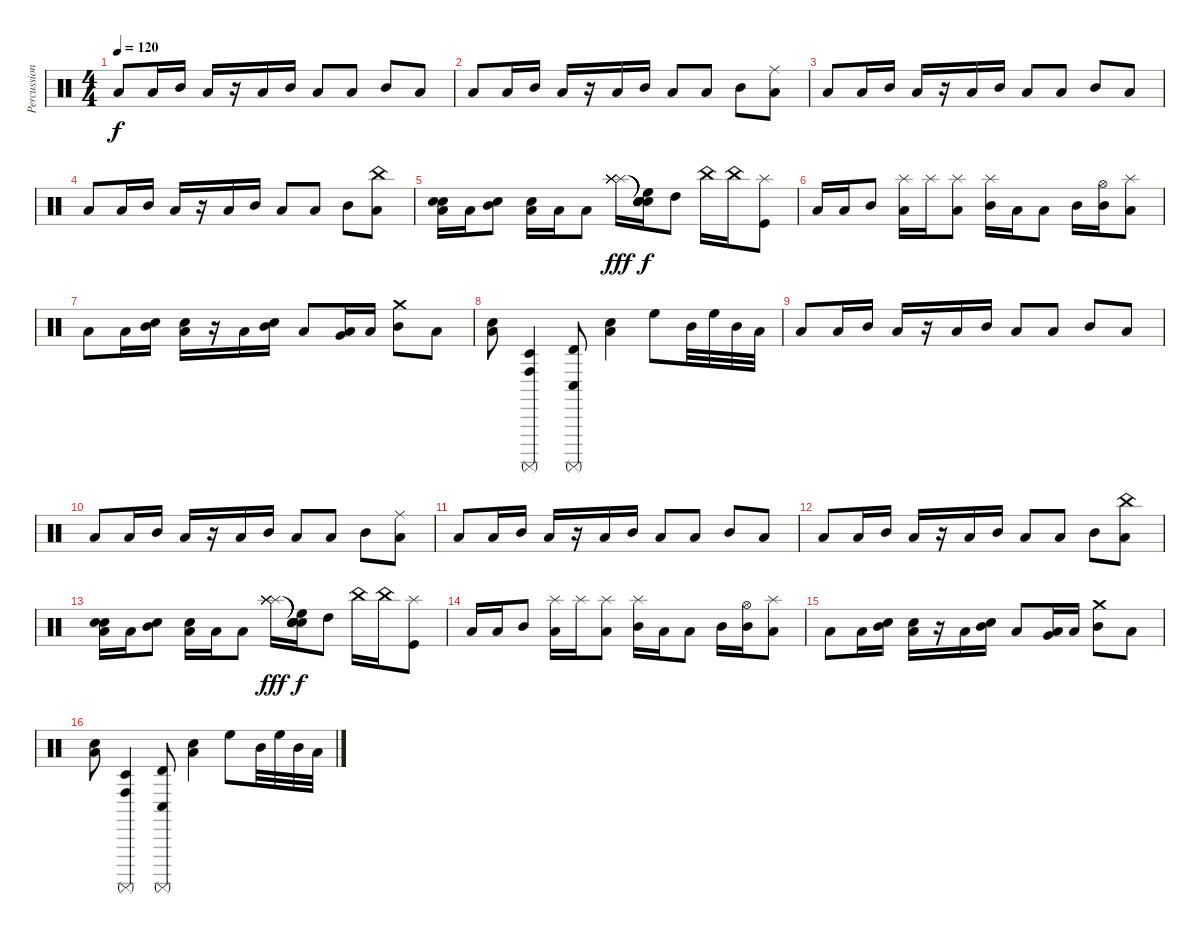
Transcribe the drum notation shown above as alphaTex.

\track ("Percussion" "Percussion") {instrument percussion}
\staff {score}
\articulation defaults
\ts (4 4)
\tempo 120
\clef neutral
\ks c "Low Floor Tom (hit)".8{dy f} "Low Tom (hit)".16 "Mid Tom (hit)".16 "Low Tom (hit)".16
r.16 "Low Tom (hit)".16 "Mid Tom (hit)".16 "Low Floor Tom (hit)".8 "Low Tom (hit)".8 "Mid Tom (hit)".8 "Low Tom (hit)".8 |
"Low Floor Tom (hit)".8 "Low Tom (hit)".16 "Mid Tom (hit)".16 "Low Tom (hit)".16 r.16 "Low Tom (hit)".16 "Mid Tom (hit)".16 "Low Floor Tom (hit)".8 "Low Tom (hit)".8 "Mid Tom (hit)".8 ("Low Tom (hit)" "Ride (middle)").8 |
"Low Floor Tom (hit)".8 "Low Tom (hit)".16 "Mid Tom (hit)".16 "Low Tom (hit)".16 r.16 "Low Tom (hit)".16 "Mid Tom (hit)".16 "Low Floor Tom (hit)".8 "Low Tom (hit)".8 "Mid Tom (hit)".8 "Low Tom (hit)".8 |
"Low Floor Tom (hit)".8 "Low Tom (hit)".16 "Mid Tom (hit)".16 "Low Tom (hit)".16 r.16 "Low Tom (hit)".16 "Mid Tom (hit)".16 "Low Floor Tom (hit)".8 "Low Tom (hit)".8 "Mid Tom (hit)".8 ("Low Tom (hit)" "China (hit)").8 |
("Low Floor Tom (hit)" "Snare (hit)" "Snare (hit)").16 "Low Tom (hit)".16 ("Mid Tom (hit)" "Snare (hit) 2").8 ("Low Tom (hit)" "Snare (hit) 2").16 "Low Tom (hit)".16 "Low Tom (hit)".8 ("Splash (hit)" "Splash (hit)" "Splash (hit)" "Splash (hit)" "Splash (hit)" "Splash (hit)").16{dy fff} ("Snare (hit)"{t} "High Floor Tom (hit)" "Snare (hit)"{t} "Snare (hit)"{t} "Snare (hit)"{t} "Snare (hit)"{t}).16{dy f} "High Tom (hit)".8 "China (hit)".16 "China (hit)".16 ("Splash (hit)" "Kick (hit)").8 |
"Low Floor Tom (hit)".16 "Low Tom (hit)".16 "Mid Tom (hit)".8 ("Low Tom (hit)" "Splash (hit)").16 "Splash (hit)".16 ("Low Tom (hit)" "Splash (hit)").8 ("Mid Tom (hit)" "Splash (hit)").16 "Low Floor Tom (hit)".16 "Low Tom (hit)".8 "Mid Tom (hit)".16 ("Mid Tom (hit)" "Hi-Hat (open)").16 ("Low Tom (hit)" "Splash (hit)").8 |
"Low Floor Tom (hit)".8 "Low Tom (hit)".16 ("Mid Tom (hit)" "Snare (hit) 2").16 ("Low Tom (hit)" "Snare (hit) 2").16 r.16 "Low Tom (hit)".16 ("Mid Tom (hit)" "Snare (hit) 2").16 "Low Floor Tom (hit)".8 ("Low Tom (hit)" "Very Low Tom (hit)").16 "Low Floor Tom (hit)".16 ("Mid Tom (hit)" "Crash medium (hit)").8 "Low Tom (hit)".8 |
("Low Floor Tom (hit)" "Hand Clap (hit)").8 ("Timbale low (hit)" "Surdo (mute)" "Conga high (hit)").4 ("Surdo (mute)" "Conga low (hit)" "Timbale high (hit)").8 ("Low Floor Tom (hit)" "Hand Clap (hit)").4 "High Floor Tom (hit)".8 "Mid Tom (hit)".32 "High Floor Tom (hit)".32 "Mid Tom (hit)".32 "Low Tom (hit)".32 |
"Low Floor Tom (hit)".8 "Low Tom (hit)".16 "Mid Tom (hit)".16 "Low Tom (hit)".16 r.16 "Low Tom (hit)".16 "Mid Tom (hit)".16 "Low Floor Tom (hit)".8 "Low Tom (hit)".8 "Mid Tom (hit)".8 "Low Tom (hit)".8 |
"Low Floor Tom (hit)".8 "Low Tom (hit)".16 "Mid Tom (hit)".16 "Low Tom (hit)".16 r.16 "Low Tom (hit)".16 "Mid Tom (hit)".16 "Low Floor Tom (hit)".8 "Low Tom (hit)".8 "Mid Tom (hit)".8 ("Low Tom (hit)" "Ride (middle)").8 |
"Low Floor Tom (hit)".8 "Low Tom (hit)".16 "Mid Tom (hit)".16 "Low Tom (hit)".16 r.16 "Low Tom (hit)".16 "Mid Tom (hit)".16 "Low Floor Tom (hit)".8 "Low Tom (hit)".8 "Mid Tom (hit)".8 "Low Tom (hit)".8 |
"Low Floor Tom (hit)".8 "Low Tom (hit)".16 "Mid Tom (hit)".16 "Low Tom (hit)".16 r.16 "Low Tom (hit)".16 "Mid Tom (hit)".16 "Low Floor Tom (hit)".8 "Low Tom (hit)".8 "Mid Tom (hit)".8 ("Low Tom (hit)" "China (hit)").8 |
("Low Floor Tom (hit)" "Snare (hit)" "Snare (hit)").16 "Low Tom (hit)".16 ("Mid Tom (hit)" "Snare (hit) 2").8 ("Low Tom (hit)" "Snare (hit) 2").16 "Low Tom (hit)".16 "Low Tom (hit)".8 ("Splash (hit)" "Splash (hit)" "Splash (hit)" "Splash (hit)" "Splash (hit)" "Splash (hit)").16{dy fff} ("Snare (hit)"{t} "High Floor Tom (hit)" "Snare (hit)"{t} "Snare (hit)"{t} "Snare (hit)"{t} "Snare (hit)"{t}).16{dy f} "High Tom (hit)".8 "China (hit)".16 "China (hit)".16 ("Splash (hit)" "Kick (hit)").8 |
"Low Floor Tom (hit)".16 "Low Tom (hit)".16 "Mid Tom (hit)".8 ("Low Tom (hit)" "Splash (hit)").16 "Splash (hit)".16 ("Low Tom (hit)" "Splash (hit)").8 ("Mid Tom (hit)" "Splash (hit)").16 "Low Floor Tom (hit)".16 "Low Tom (hit)".8 "Mid Tom (hit)".16 ("Mid Tom (hit)" "Hi-Hat (open)").16 ("Low Tom (hit)" "Splash (hit)").8 |
"Low Floor Tom (hit)".8 "Low Tom (hit)".16 ("Mid Tom (hit)" "Snare (hit) 2").16 ("Low Tom (hit)" "Snare (hit) 2").16 r.16 "Low Tom (hit)".16 ("Mid Tom (hit)" "Snare (hit) 2").16 "Low Floor Tom (hit)".8 ("Low Tom (hit)" "Very Low Tom (hit)").16 "Low Floor Tom (hit)".16 ("Mid Tom (hit)" "Crash medium (hit)").8 "Low Tom (hit)".8 |
("Low Floor Tom (hit)" "Hand Clap (hit)").8 ("Timbale low (hit)" "Surdo (mute)" "Conga high (hit)").4 ("Surdo (mute)" "Conga low (hit)" "Timbale high (hit)").8 ("Low Floor Tom (hit)" "Hand Clap (hit)").4 "High Floor Tom (hit)".8 "Mid Tom (hit)".32 "High Floor Tom (hit)".32 "Mid Tom (hit)".32 "Low Tom (hit)".32
